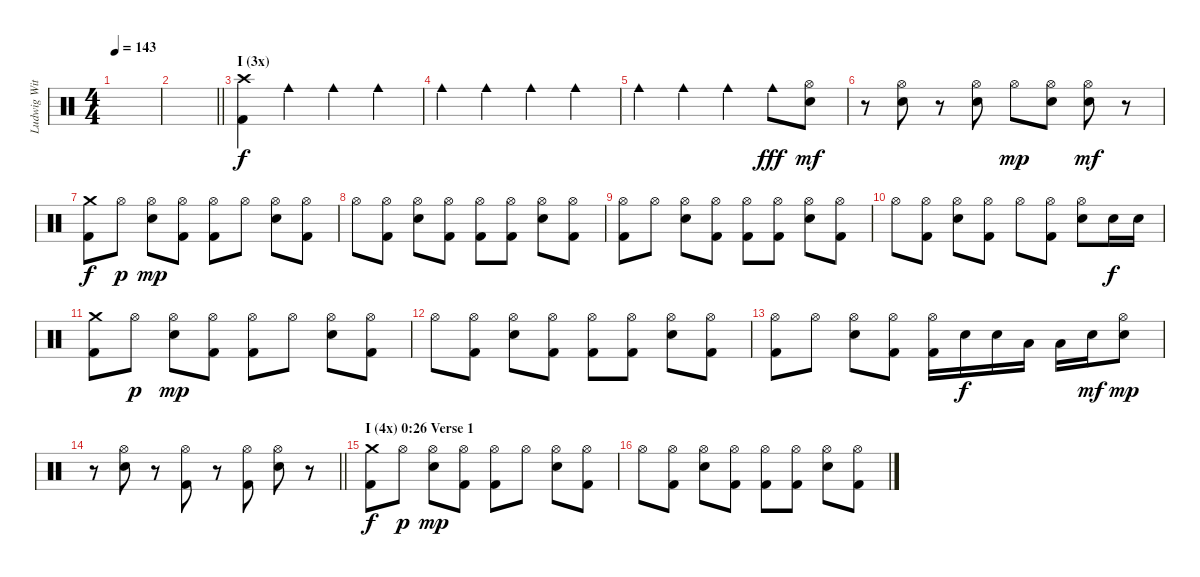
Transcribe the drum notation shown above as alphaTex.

\track ("Ludwig Witt (Drums)" "Ludwig Wit") {instrument percussion}
\staff {score}
\articulation defaults
\ts (4 4)
\tempo 143
\clef neutral
\ks c
|
\barLineRight lightlight
|
\section ("" "I (3x)")
("Crash high (hit)" "Kick (hit) 2").4 "Cowbell medium (hit)".4 "Cowbell medium (hit)".4 "Cowbell medium (hit)".4 |
"Cowbell medium (hit)".4 "Cowbell medium (hit)".4 "Cowbell medium (hit)".4 "Cowbell medium (hit)".4 |
"Cowbell medium (hit)".4 "Cowbell medium (hit)".4 "Cowbell medium (hit)".4 "Cowbell medium (hit)".8{dy fff} ("Hi-Hat (open)" "Electric Snare (hit)").8{dy mf} |
r.8 ("Hi-Hat (open)" "Electric Snare (hit)").8 r.8 ("Hi-Hat (open)" "Electric Snare (hit)").8 "Hi-Hat (open)".8{dy mp} ("Hi-Hat (open)" "Electric Snare (hit)").8 ("Hi-Hat (open)" "Electric Snare (hit)").8{dy mf} r.8 |
("Crash medium (hit)" "Kick (hit) 2").8{dy f} "Hi-Hat (open)".8{dy p} ("Hi-Hat (open)" "Electric Snare (hit)").8{dy mp} ("Hi-Hat (open)" "Kick (hit) 2").8 ("Hi-Hat (open)" "Kick (hit) 2").8 "Hi-Hat (open)".8 ("Hi-Hat (open)" "Electric Snare (hit)").8 ("Hi-Hat (open)" "Kick (hit) 2").8 |
"Hi-Hat (open)".8 ("Hi-Hat (open)" "Kick (hit) 2").8 ("Hi-Hat (open)" "Electric Snare (hit)").8 ("Hi-Hat (open)" "Kick (hit) 2").8 ("Hi-Hat (open)" "Kick (hit) 2").8 ("Hi-Hat (open)" "Kick (hit) 2").8 ("Hi-Hat (open)" "Electric Snare (hit)").8 ("Hi-Hat (open)" "Kick (hit) 2").8 |
("Hi-Hat (open)" "Kick (hit) 2").8 "Hi-Hat (open)".8 ("Hi-Hat (open)" "Electric Snare (hit)").8 ("Hi-Hat (open)" "Kick (hit) 2").8 ("Hi-Hat (open)" "Kick (hit) 2").8 ("Hi-Hat (open)" "Kick (hit) 2").8 ("Hi-Hat (open)" "Electric Snare (hit)").8 ("Hi-Hat (open)" "Kick (hit) 2").8 |
"Hi-Hat (open)".8 ("Hi-Hat (open)" "Kick (hit) 2").8 ("Hi-Hat (open)" "Electric Snare (hit)").8 ("Hi-Hat (open)" "Kick (hit) 2").8 "Hi-Hat (open)".8 ("Hi-Hat (open)" "Kick (hit) 2").8 ("Hi-Hat (open)" "Electric Snare (hit)").8 "Electric Snare (hit)".16{dy f} "Electric Snare (hit)".16 |
("Crash medium (hit)" "Kick (hit) 2").8 "Hi-Hat (open)".8{dy p} ("Hi-Hat (open)" "Electric Snare (hit)").8{dy mp} ("Hi-Hat (open)" "Kick (hit) 2").8 ("Hi-Hat (open)" "Kick (hit) 2").8 "Hi-Hat (open)".8 ("Hi-Hat (open)" "Electric Snare (hit)").8 ("Hi-Hat (open)" "Kick (hit) 2").8 |
"Hi-Hat (open)".8 ("Hi-Hat (open)" "Kick (hit) 2").8 ("Hi-Hat (open)" "Electric Snare (hit)").8 ("Hi-Hat (open)" "Kick (hit) 2").8 ("Hi-Hat (open)" "Kick (hit) 2").8 ("Hi-Hat (open)" "Kick (hit) 2").8 ("Hi-Hat (open)" "Electric Snare (hit)").8 ("Hi-Hat (open)" "Kick (hit) 2").8 |
("Hi-Hat (open)" "Kick (hit) 2").8 "Hi-Hat (open)".8 ("Hi-Hat (open)" "Electric Snare (hit)").8 ("Hi-Hat (open)" "Kick (hit) 2").8 ("Hi-Hat (open)" "Kick (hit) 2").16 "Electric Snare (hit)".16{dy f} "Electric Snare (hit)".16 "Low Tom (hit)".16 "Low Tom (hit)".16 "Electric Snare (hit)".16{dy mf} ("Hi-Hat (open)" "Electric Snare (hit)").8{dy mp} |
\barLineRight lightlight
r.8 ("Hi-Hat (open)" "Electric Snare (hit)").8 r.8 ("Hi-Hat (open)" "Kick (hit) 2").8 r.8 ("Hi-Hat (open)" "Kick (hit) 2").8 ("Hi-Hat (open)" "Electric Snare (hit)").8 r.8 |
\section ("" "I (4x) 0:26 Verse 1")
("Crash medium (hit)" "Kick (hit) 2").8{dy f} "Hi-Hat (open)".8{dy p} ("Hi-Hat (open)" "Electric Snare (hit)").8{dy mp} ("Hi-Hat (open)" "Kick (hit) 2").8 ("Hi-Hat (open)" "Kick (hit) 2").8 "Hi-Hat (open)".8 ("Hi-Hat (open)" "Electric Snare (hit)").8 ("Hi-Hat (open)" "Kick (hit) 2").8 |
"Hi-Hat (open)".8 ("Hi-Hat (open)" "Kick (hit) 2").8 ("Hi-Hat (open)" "Electric Snare (hit)").8 ("Hi-Hat (open)" "Kick (hit) 2").8 ("Hi-Hat (open)" "Kick (hit) 2").8 ("Hi-Hat (open)" "Kick (hit) 2").8 ("Hi-Hat (open)" "Electric Snare (hit)").8 ("Hi-Hat (open)" "Kick (hit) 2").8
